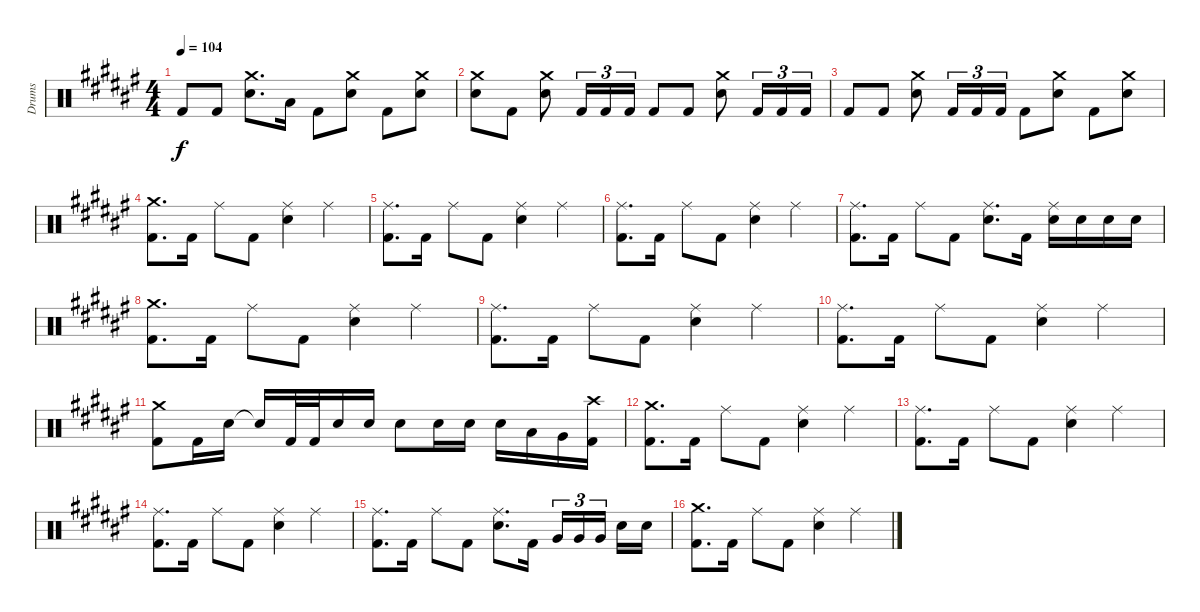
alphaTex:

\track ("Drums" "Drums") {instrument percussion}
\staff {score}
\articulation defaults
\ts (4 4)
\tempo 104
\clef neutral
\ks f# "Kick (hit) 2".8{dy f} "Kick (hit) 2".8
("Crash medium (hit)" "Snare (hit) 2").8{d} "Low Floor Tom (hit)".16 "Kick (hit) 2".8 ("Crash medium (hit)" "Snare (hit) 2").8 "Kick (hit) 2".8 ("Crash medium (hit)" "Snare (hit) 2").8 |
("Crash medium (hit)" "Snare (hit) 2").8 "Kick (hit) 2".8 ("Crash medium (hit)" "Snare (hit) 2").8 "Kick (hit) 2".16{tu (3 2)} "Kick (hit) 2".16{tu (3 2)} "Kick (hit) 2".16{tu (3 2)} "Kick (hit) 2".8 "Kick (hit) 2".8 ("Crash medium (hit)" "Snare (hit) 2").8 "Kick (hit) 2".16{tu (3 2)} "Kick (hit) 2".16{tu (3 2)} "Kick (hit) 2".16{tu (3 2)} |
"Kick (hit) 2".8 "Kick (hit) 2".8 ("Crash medium (hit)" "Snare (hit) 2").8 "Kick (hit) 2".16{tu (3 2)} "Kick (hit) 2".16{tu (3 2)} "Kick (hit) 2".16{tu (3 2)} "Kick (hit) 2".8 ("Crash medium (hit)" "Snare (hit) 2").8 "Kick (hit) 2".8 ("Crash medium (hit)" "Snare (hit) 2").8 |
("Crash medium (hit)" "Kick (hit) 2").8{d} "Kick (hit) 2".16 "Ride (middle)".8 "Kick (hit) 2".8 ("Ride (middle)" "Snare (hit) 2").4 "Ride (middle)".4 |
("Ride (middle)" "Kick (hit) 2").8{d} "Kick (hit) 2".16 "Ride (middle)".8 "Kick (hit) 2".8 ("Ride (middle)" "Snare (hit) 2").4 "Ride (middle)".4 |
("Ride (middle)" "Kick (hit) 2").8{d} "Kick (hit) 2".16 "Ride (middle)".8 "Kick (hit) 2".8 ("Ride (middle)" "Snare (hit) 2").4 "Ride (middle)".4 |
("Ride (middle)" "Kick (hit) 2").8{d} "Kick (hit) 2".16 "Ride (middle)".8 "Kick (hit) 2".8 ("Ride (middle)" "Snare (hit) 2").8{d} "Kick (hit) 2".16 ("Ride (middle)" "Snare (hit) 2").16 "Snare (hit) 2".16 "Snare (hit) 2".16 "Snare (hit) 2".16 |
("Crash medium (hit)" "Kick (hit) 2").8{d} "Kick (hit) 2".16 "Ride (middle)".8 "Kick (hit) 2".8 ("Ride (middle)" "Snare (hit) 2").4 "Ride (middle)".4 |
("Ride (middle)" "Kick (hit) 2").8{d} "Kick (hit) 2".16 "Ride (middle)".8 "Kick (hit) 2".8 ("Ride (middle)" "Snare (hit) 2").4 "Ride (middle)".4 |
("Ride (middle)" "Kick (hit) 2").8{d} "Kick (hit) 2".16 "Ride (middle)".8 "Kick (hit) 2".8 ("Ride (middle)" "Snare (hit) 2").4 "Ride (middle)".4 |
("Crash medium (hit)" "Kick (hit) 2").8 "Kick (hit) 2".16 "Snare (hit) 2".16 "Snare (hit)"{t}.16 "Kick (hit) 2".32 "Kick (hit) 2".32 "Snare (hit) 2".16 "Snare (hit) 2".16 "Snare (hit) 2".8 "Snare (hit) 2".16 "Snare (hit) 2".16 "Snare (hit) 2".16 "Low Tom (hit)".16 "Very Low Tom (hit)".16 ("Crash high (hit)" "Kick (hit) 2").16 |
("Crash medium (hit)" "Kick (hit) 2").8{d} "Kick (hit) 2".16 "Ride (middle)".8 "Kick (hit) 2".8 ("Ride (middle)" "Snare (hit) 2").4 "Ride (middle)".4 |
("Ride (middle)" "Kick (hit) 2").8{d} "Kick (hit) 2".16 "Ride (middle)".8 "Kick (hit) 2".8 ("Ride (middle)" "Snare (hit) 2").4 "Ride (middle)".4 |
("Ride (middle)" "Kick (hit) 2").8{d} "Kick (hit) 2".16 "Ride (middle)".8 "Kick (hit) 2".8 ("Ride (middle)" "Snare (hit) 2").4 "Ride (middle)".4 |
("Ride (middle)" "Kick (hit) 2").8{d} "Kick (hit) 2".16 "Ride (middle)".8 "Kick (hit) 2".8 ("Ride (middle)" "Snare (hit) 2").8{d} "Kick (hit) 2".16 "Very Low Tom (hit)".16{tu (3 2)} "Very Low Tom (hit)".16{tu (3 2)} "Very Low Tom (hit)".16{tu (3 2) beam splitsecondary} "Snare (hit) 2".16 "Snare (hit) 2".16 |
("Crash medium (hit)" "Kick (hit) 2").8{d} "Kick (hit) 2".16 "Ride (middle)".8 "Kick (hit) 2".8 ("Ride (middle)" "Snare (hit) 2").4 "Ride (middle)".4
